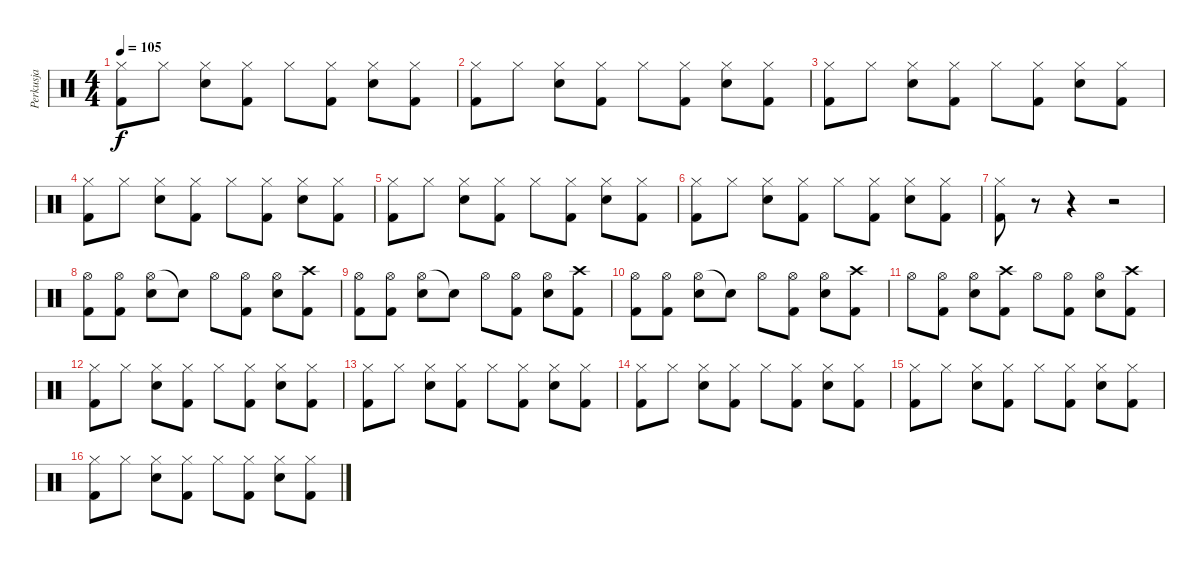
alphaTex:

\track ("Perkusja" "Perkusja") {instrument percussion}
\staff {score}
\articulation defaults
\ts (4 4)
\tempo 105
\clef neutral
\ks c
("Hi-Hat (closed)" "Kick (hit) 2").8{dy f} "Hi-Hat (closed)".8 ("Hi-Hat (closed)" "Snare (hit) 2").8 ("Hi-Hat (closed)" "Kick (hit) 2").8 "Hi-Hat (closed)".8 ("Hi-Hat (closed)" "Kick (hit) 2").8 ("Hi-Hat (closed)" "Snare (hit) 2").8 ("Hi-Hat (closed)" "Kick (hit) 2").8 |
("Hi-Hat (closed)" "Kick (hit) 2").8 "Hi-Hat (closed)".8 ("Hi-Hat (closed)" "Snare (hit) 2").8 ("Hi-Hat (closed)" "Kick (hit) 2").8 "Hi-Hat (closed)".8 ("Hi-Hat (closed)" "Kick (hit) 2").8 ("Hi-Hat (closed)" "Snare (hit) 2").8 ("Hi-Hat (closed)" "Kick (hit) 2").8 |
("Hi-Hat (closed)" "Kick (hit) 2").8 "Hi-Hat (closed)".8 ("Hi-Hat (closed)" "Snare (hit) 2").8 ("Hi-Hat (closed)" "Kick (hit) 2").8 "Hi-Hat (closed)".8 ("Hi-Hat (closed)" "Kick (hit) 2").8 ("Hi-Hat (closed)" "Snare (hit) 2").8 ("Hi-Hat (closed)" "Kick (hit) 2").8 |
("Hi-Hat (closed)" "Kick (hit) 2").8 "Hi-Hat (closed)".8 ("Hi-Hat (closed)" "Snare (hit) 2").8 ("Hi-Hat (closed)" "Kick (hit) 2").8 "Hi-Hat (closed)".8 ("Hi-Hat (closed)" "Kick (hit) 2").8 ("Hi-Hat (closed)" "Snare (hit) 2").8 ("Hi-Hat (closed)" "Kick (hit) 2").8 |
("Hi-Hat (closed)" "Kick (hit) 2").8 "Hi-Hat (closed)".8 ("Hi-Hat (closed)" "Snare (hit) 2").8 ("Hi-Hat (closed)" "Kick (hit) 2").8 "Hi-Hat (closed)".8 ("Hi-Hat (closed)" "Kick (hit) 2").8 ("Hi-Hat (closed)" "Snare (hit) 2").8 ("Hi-Hat (closed)" "Kick (hit) 2").8 |
("Hi-Hat (closed)" "Kick (hit) 2").8 "Hi-Hat (closed)".8 ("Hi-Hat (closed)" "Snare (hit) 2").8 ("Hi-Hat (closed)" "Kick (hit) 2").8 "Hi-Hat (closed)".8 ("Hi-Hat (closed)" "Kick (hit) 2").8 ("Hi-Hat (closed)" "Snare (hit) 2").8 ("Hi-Hat (closed)" "Kick (hit) 2").8 |
("Hi-Hat (closed)" "Kick (hit) 2").8 r.8 r.4 r.2 |
("Hi-Hat (open)" "Kick (hit) 2").8 ("Hi-Hat (open)" "Kick (hit) 2").8 ("Hi-Hat (open)" "Snare (hit) 2").8 "Snare (hit)"{t}.8 "Hi-Hat (open)".8 ("Hi-Hat (open)" "Kick (hit) 2").8 ("Hi-Hat (open)" "Snare (hit) 2").8 ("Crash high (hit)" "Kick (hit) 2").8 |
("Hi-Hat (open)" "Kick (hit) 2").8 ("Hi-Hat (open)" "Kick (hit) 2").8 ("Hi-Hat (open)" "Snare (hit) 2").8 "Snare (hit)"{t}.8 "Hi-Hat (open)".8 ("Hi-Hat (open)" "Kick (hit) 2").8 ("Hi-Hat (open)" "Snare (hit) 2").8 ("Crash high (hit)" "Kick (hit) 2").8 |
("Hi-Hat (open)" "Kick (hit) 2").8 ("Hi-Hat (open)" "Kick (hit) 2").8 ("Hi-Hat (open)" "Snare (hit) 2").8 "Snare (hit)"{t}.8 "Hi-Hat (open)".8 ("Hi-Hat (open)" "Kick (hit) 2").8 ("Hi-Hat (open)" "Snare (hit) 2").8 ("Crash high (hit)" "Kick (hit) 2").8 |
"Hi-Hat (open)".8 ("Hi-Hat (open)" "Kick (hit) 2").8 ("Hi-Hat (open)" "Snare (hit) 2").8 ("Crash high (hit)" "Kick (hit) 2").8 "Hi-Hat (open)".8 ("Hi-Hat (open)" "Kick (hit) 2").8 ("Hi-Hat (open)" "Snare (hit) 2").8 ("Crash high (hit)" "Kick (hit) 2").8 |
("Hi-Hat (closed)" "Kick (hit) 2").8 "Hi-Hat (closed)".8 ("Hi-Hat (closed)" "Snare (hit) 2").8 ("Hi-Hat (closed)" "Kick (hit) 2").8 "Hi-Hat (closed)".8 ("Hi-Hat (closed)" "Kick (hit) 2").8 ("Hi-Hat (closed)" "Snare (hit) 2").8 ("Hi-Hat (closed)" "Kick (hit) 2").8 |
("Hi-Hat (closed)" "Kick (hit) 2").8 "Hi-Hat (closed)".8 ("Hi-Hat (closed)" "Snare (hit) 2").8 ("Hi-Hat (closed)" "Kick (hit) 2").8 "Hi-Hat (closed)".8 ("Hi-Hat (closed)" "Kick (hit) 2").8 ("Hi-Hat (closed)" "Snare (hit) 2").8 ("Hi-Hat (closed)" "Kick (hit) 2").8 |
("Hi-Hat (closed)" "Kick (hit) 2").8 "Hi-Hat (closed)".8 ("Hi-Hat (closed)" "Snare (hit) 2").8 ("Hi-Hat (closed)" "Kick (hit) 2").8 "Hi-Hat (closed)".8 ("Hi-Hat (closed)" "Kick (hit) 2").8 ("Hi-Hat (closed)" "Snare (hit) 2").8 ("Hi-Hat (closed)" "Kick (hit) 2").8 |
("Hi-Hat (closed)" "Kick (hit) 2").8 "Hi-Hat (closed)".8 ("Hi-Hat (closed)" "Snare (hit) 2").8 ("Hi-Hat (closed)" "Kick (hit) 2").8 "Hi-Hat (closed)".8 ("Hi-Hat (closed)" "Kick (hit) 2").8 ("Hi-Hat (closed)" "Snare (hit) 2").8 ("Hi-Hat (closed)" "Kick (hit) 2").8 |
("Hi-Hat (closed)" "Kick (hit) 2").8 "Hi-Hat (closed)".8 ("Hi-Hat (closed)" "Snare (hit) 2").8 ("Hi-Hat (closed)" "Kick (hit) 2").8 "Hi-Hat (closed)".8 ("Hi-Hat (closed)" "Kick (hit) 2").8 ("Hi-Hat (closed)" "Snare (hit) 2").8 ("Hi-Hat (closed)" "Kick (hit) 2").8
